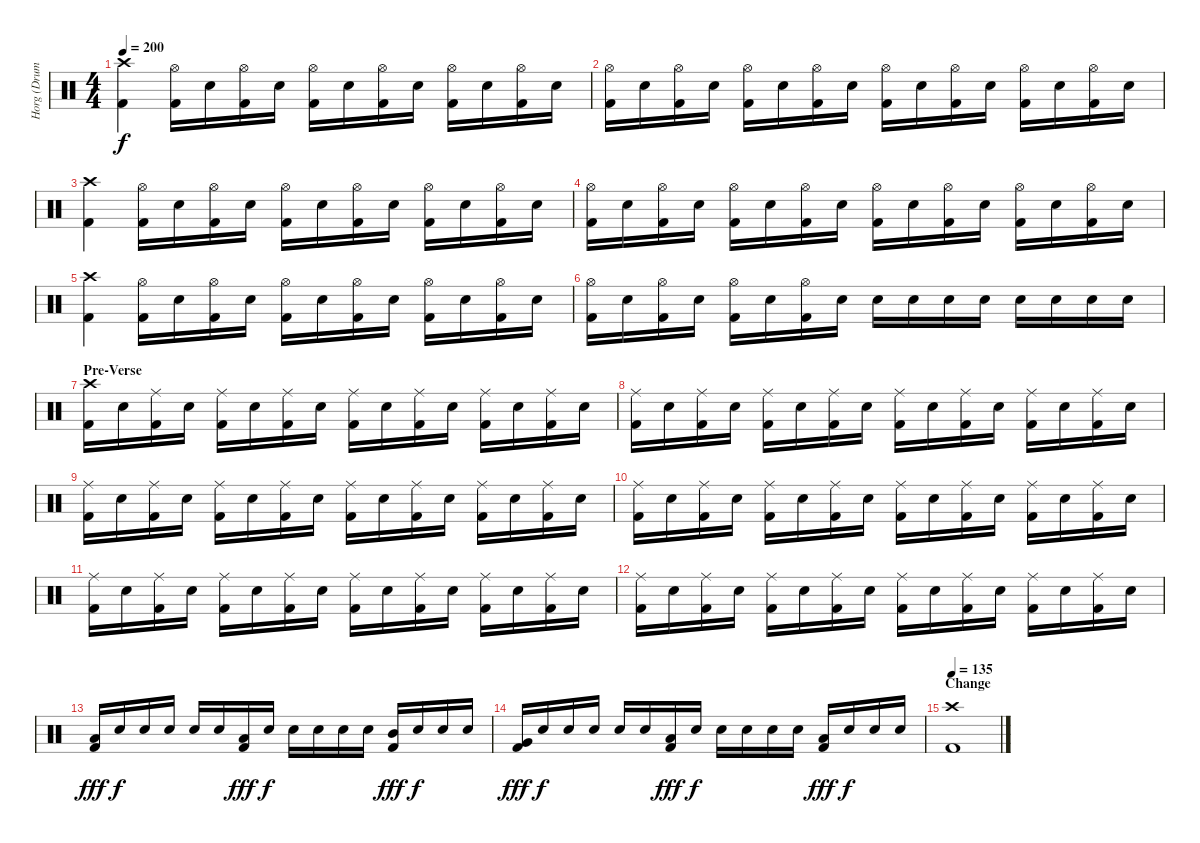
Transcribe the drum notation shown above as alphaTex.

\track ("Horg (Drums)" "Horg (Drum") {instrument percussion}
\staff {score}
\articulation defaults
\ts (4 4)
\tempo 200
\clef neutral
\ks c
("Crash high (hit)" "Kick (hit) 2").4{dy f} ("Hi-Hat (open)" "Kick (hit) 2").16 "Electric Snare (hit)".16 ("Hi-Hat (open)" "Kick (hit) 2").16 "Electric Snare (hit)".16 ("Hi-Hat (open)" "Kick (hit) 2").16 "Electric Snare (hit)".16 ("Hi-Hat (open)" "Kick (hit) 2").16 "Electric Snare (hit)".16 ("Hi-Hat (open)" "Kick (hit) 2").16 "Electric Snare (hit)".16 ("Hi-Hat (open)" "Kick (hit) 2").16 "Electric Snare (hit)".16 |
("Hi-Hat (open)" "Kick (hit) 2").16 "Electric Snare (hit)".16 ("Hi-Hat (open)" "Kick (hit) 2").16 "Electric Snare (hit)".16 ("Hi-Hat (open)" "Kick (hit) 2").16 "Electric Snare (hit)".16 ("Hi-Hat (open)" "Kick (hit) 2").16 "Electric Snare (hit)".16 ("Hi-Hat (open)" "Kick (hit) 2").16 "Electric Snare (hit)".16 ("Hi-Hat (open)" "Kick (hit) 2").16 "Electric Snare (hit)".16 ("Hi-Hat (open)" "Kick (hit) 2").16 "Electric Snare (hit)".16 ("Hi-Hat (open)" "Kick (hit) 2").16 "Electric Snare (hit)".16 |
("Crash high (hit)" "Kick (hit) 2").4 ("Hi-Hat (open)" "Kick (hit) 2").16 "Electric Snare (hit)".16 ("Hi-Hat (open)" "Kick (hit) 2").16 "Electric Snare (hit)".16 ("Hi-Hat (open)" "Kick (hit) 2").16 "Electric Snare (hit)".16 ("Hi-Hat (open)" "Kick (hit) 2").16 "Electric Snare (hit)".16 ("Hi-Hat (open)" "Kick (hit) 2").16 "Electric Snare (hit)".16 ("Hi-Hat (open)" "Kick (hit) 2").16 "Electric Snare (hit)".16 |
("Hi-Hat (open)" "Kick (hit) 2").16 "Electric Snare (hit)".16 ("Hi-Hat (open)" "Kick (hit) 2").16 "Electric Snare (hit)".16 ("Hi-Hat (open)" "Kick (hit) 2").16 "Electric Snare (hit)".16 ("Hi-Hat (open)" "Kick (hit) 2").16 "Electric Snare (hit)".16 ("Hi-Hat (open)" "Kick (hit) 2").16 "Electric Snare (hit)".16 ("Hi-Hat (open)" "Kick (hit) 2").16 "Electric Snare (hit)".16 ("Hi-Hat (open)" "Kick (hit) 2").16 "Electric Snare (hit)".16 ("Hi-Hat (open)" "Kick (hit) 2").16 "Electric Snare (hit)".16 |
("Crash high (hit)" "Kick (hit) 2").4 ("Hi-Hat (open)" "Kick (hit) 2").16 "Electric Snare (hit)".16 ("Hi-Hat (open)" "Kick (hit) 2").16 "Electric Snare (hit)".16 ("Hi-Hat (open)" "Kick (hit) 2").16 "Electric Snare (hit)".16 ("Hi-Hat (open)" "Kick (hit) 2").16 "Electric Snare (hit)".16 ("Hi-Hat (open)" "Kick (hit) 2").16 "Electric Snare (hit)".16 ("Hi-Hat (open)" "Kick (hit) 2").16 "Electric Snare (hit)".16 |
("Hi-Hat (open)" "Kick (hit) 2").16 "Electric Snare (hit)".16 ("Hi-Hat (open)" "Kick (hit) 2").16 "Electric Snare (hit)".16 ("Hi-Hat (open)" "Kick (hit) 2").16 "Electric Snare (hit)".16 ("Hi-Hat (open)" "Kick (hit) 2").16 "Electric Snare (hit)".16 "Electric Snare (hit)".16 "Electric Snare (hit)".16 "Electric Snare (hit)".16 "Electric Snare (hit)".16 "Electric Snare (hit)".16 "Electric Snare (hit)".16 "Electric Snare (hit)".16 "Electric Snare (hit)".16 |
\section ("" "Pre-Verse")
("Crash high (hit)" "Kick (hit) 2").16 "Electric Snare (hit)".16 ("Ride (middle)" "Kick (hit) 2").16 "Electric Snare (hit)".16 ("Ride (middle)" "Kick (hit) 2").16 "Electric Snare (hit)".16 ("Ride (middle)" "Kick (hit) 2").16 "Electric Snare (hit)".16 ("Ride (middle)" "Kick (hit) 2").16 "Electric Snare (hit)".16 ("Ride (middle)" "Kick (hit) 2").16 "Electric Snare (hit)".16 ("Ride (middle)" "Kick (hit) 2").16 "Electric Snare (hit)".16 ("Ride (middle)" "Kick (hit) 2").16 "Electric Snare (hit)".16 |
("Ride (middle)" "Kick (hit) 2").16 "Electric Snare (hit)".16 ("Ride (middle)" "Kick (hit) 2").16 "Electric Snare (hit)".16 ("Ride (middle)" "Kick (hit) 2").16 "Electric Snare (hit)".16 ("Ride (middle)" "Kick (hit) 2").16 "Electric Snare (hit)".16 ("Ride (middle)" "Kick (hit) 2").16 "Electric Snare (hit)".16 ("Ride (middle)" "Kick (hit) 2").16 "Electric Snare (hit)".16 ("Ride (middle)" "Kick (hit) 2").16 "Electric Snare (hit)".16 ("Ride (middle)" "Kick (hit) 2").16 "Electric Snare (hit)".16 |
("Ride (middle)" "Kick (hit) 2").16 "Electric Snare (hit)".16 ("Ride (middle)" "Kick (hit) 2").16 "Electric Snare (hit)".16 ("Ride (middle)" "Kick (hit) 2").16 "Electric Snare (hit)".16 ("Ride (middle)" "Kick (hit) 2").16 "Electric Snare (hit)".16 ("Ride (middle)" "Kick (hit) 2").16 "Electric Snare (hit)".16 ("Ride (middle)" "Kick (hit) 2").16 "Electric Snare (hit)".16 ("Ride (middle)" "Kick (hit) 2").16 "Electric Snare (hit)".16 ("Ride (middle)" "Kick (hit) 2").16 "Electric Snare (hit)".16 |
("Ride (middle)" "Kick (hit) 2").16 "Electric Snare (hit)".16 ("Ride (middle)" "Kick (hit) 2").16 "Electric Snare (hit)".16 ("Ride (middle)" "Kick (hit) 2").16 "Electric Snare (hit)".16 ("Ride (middle)" "Kick (hit) 2").16 "Electric Snare (hit)".16 ("Ride (middle)" "Kick (hit) 2").16 "Electric Snare (hit)".16 ("Ride (middle)" "Kick (hit) 2").16 "Electric Snare (hit)".16 ("Ride (middle)" "Kick (hit) 2").16 "Electric Snare (hit)".16 ("Ride (middle)" "Kick (hit) 2").16 "Electric Snare (hit)".16 |
("Ride (middle)" "Kick (hit) 2").16 "Electric Snare (hit)".16 ("Ride (middle)" "Kick (hit) 2").16 "Electric Snare (hit)".16 ("Ride (middle)" "Kick (hit) 2").16 "Electric Snare (hit)".16 ("Ride (middle)" "Kick (hit) 2").16 "Electric Snare (hit)".16 ("Ride (middle)" "Kick (hit) 2").16 "Electric Snare (hit)".16 ("Ride (middle)" "Kick (hit) 2").16 "Electric Snare (hit)".16 ("Ride (middle)" "Kick (hit) 2").16 "Electric Snare (hit)".16 ("Ride (middle)" "Kick (hit) 2").16 "Electric Snare (hit)".16 |
("Ride (middle)" "Kick (hit) 2").16 "Electric Snare (hit)".16 ("Ride (middle)" "Kick (hit) 2").16 "Electric Snare (hit)".16 ("Ride (middle)" "Kick (hit) 2").16 "Electric Snare (hit)".16 ("Ride (middle)" "Kick (hit) 2").16 "Electric Snare (hit)".16 ("Ride (middle)" "Kick (hit) 2").16 "Electric Snare (hit)".16 ("Ride (middle)" "Kick (hit) 2").16 "Electric Snare (hit)".16 ("Ride (middle)" "Kick (hit) 2").16 "Electric Snare (hit)".16 ("Ride (middle)" "Kick (hit) 2").16 "Electric Snare (hit)".16 |
("Low Floor Tom (hit)" "Kick (hit) 2").16{dy fff} "Electric Snare (hit)".16{dy f} "Electric Snare (hit)".16 "Electric Snare (hit)".16 "Electric Snare (hit)".16 "Electric Snare (hit)".16 ("Low Tom (hit)" "Kick (hit) 2").16{dy fff} "Electric Snare (hit)".16{dy f} "Electric Snare (hit)".16 "Electric Snare (hit)".16 "Electric Snare (hit)".16 "Electric Snare (hit)".16 ("Mid Tom (hit)" "Kick (hit) 2").16{dy fff} "Electric Snare (hit)".16{dy f} "Electric Snare (hit)".16 "Electric Snare (hit)".16 |
("Very Low Tom (hit)" "Kick (hit) 2").16{dy fff} "Electric Snare (hit)".16{dy f} "Electric Snare (hit)".16 "Electric Snare (hit)".16 "Electric Snare (hit)".16 "Electric Snare (hit)".16 ("Low Tom (hit)" "Kick (hit) 2").16{dy fff} "Electric Snare (hit)".16{dy f} "Electric Snare (hit)".16 "Electric Snare (hit)".16 "Electric Snare (hit)".16 "Electric Snare (hit)".16 ("Low Floor Tom (hit)" "Kick (hit) 2").16{dy fff} "Electric Snare (hit)".16{dy f} "Electric Snare (hit)".16 "Electric Snare (hit)".16 |
\section ("" "Change")
\tempo 135
("Crash high (hit)" "Kick (hit) 2").1
